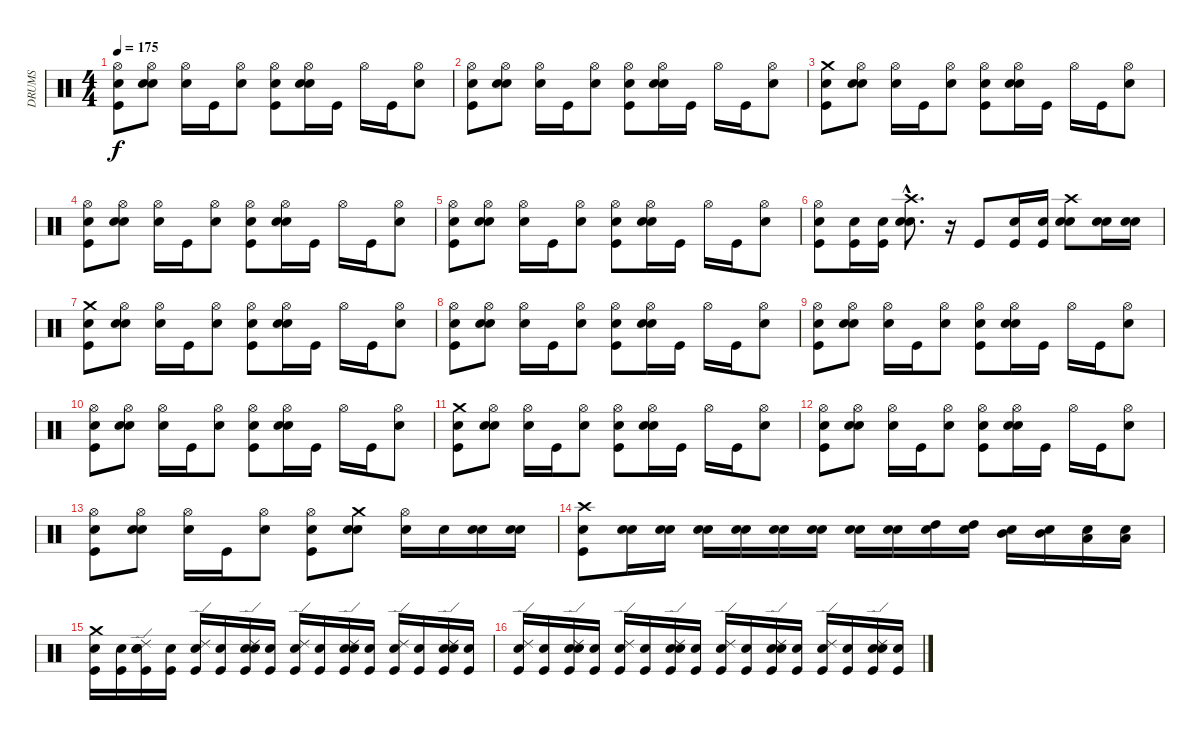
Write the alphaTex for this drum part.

\track ("DRUMS" "DRUMS") {instrument percussion}
\staff {score}
\articulation defaults
\ts (4 4)
\tempo 175
\clef neutral
\ks c
("Snare (hit)" "Kick (hit)" "Hi-Hat (open)").8{dy f} ("Snare (hit)" "Snare (hit) 2" "Hi-Hat (open)").8 ("Snare (hit)" "Hi-Hat (open)").16 "Kick (hit)".16 ("Snare (hit) 2" "Hi-Hat (open)").8 ("Snare (hit)" "Kick (hit)" "Hi-Hat (open)").8 ("Snare (hit)" "Snare (hit) 2" "Hi-Hat (open)").16 "Kick (hit)".16 "Hi-Hat (open)".16 "Kick (hit)".16 ("Snare (hit) 2" "Hi-Hat (open)").8 |
("Snare (hit)" "Kick (hit)" "Hi-Hat (open)").8 ("Snare (hit)" "Snare (hit) 2" "Hi-Hat (open)").8 ("Snare (hit)" "Hi-Hat (open)").16 "Kick (hit)".16 ("Snare (hit) 2" "Hi-Hat (open)").8 ("Snare (hit)" "Kick (hit)" "Hi-Hat (open)").8 ("Snare (hit)" "Snare (hit) 2" "Hi-Hat (open)").16 "Kick (hit)".16 "Hi-Hat (open)".16 "Kick (hit)".16 ("Snare (hit) 2" "Hi-Hat (open)").8 |
("Snare (hit)" "Crash medium (hit)" "Kick (hit)").8 ("Snare (hit)" "Hi-Hat (open)" "Snare (hit) 2").8 ("Snare (hit)" "Hi-Hat (open)").16 "Kick (hit)".16 ("Hi-Hat (open)" "Snare (hit) 2").8 ("Snare (hit)" "Hi-Hat (open)" "Kick (hit)").8 ("Snare (hit)" "Hi-Hat (open)" "Snare (hit) 2").16 "Kick (hit)".16 "Hi-Hat (open)".16 "Kick (hit)".16 ("Hi-Hat (open)" "Snare (hit) 2").8 |
("Snare (hit)" "Kick (hit)" "Hi-Hat (open)").8 ("Snare (hit)" "Snare (hit) 2" "Hi-Hat (open)").8 ("Snare (hit)" "Hi-Hat (open)").16 "Kick (hit)".16 ("Snare (hit) 2" "Hi-Hat (open)").8 ("Snare (hit)" "Kick (hit)" "Hi-Hat (open)").8 ("Snare (hit)" "Snare (hit) 2" "Hi-Hat (open)").16 "Kick (hit)".16 "Hi-Hat (open)".16 "Kick (hit)".16 ("Snare (hit) 2" "Hi-Hat (open)").8 |
("Snare (hit)" "Kick (hit)" "Hi-Hat (open)").8 ("Snare (hit)" "Snare (hit) 2" "Hi-Hat (open)").8 ("Snare (hit)" "Hi-Hat (open)").16 "Kick (hit)".16 ("Snare (hit) 2" "Hi-Hat (open)").8 ("Snare (hit)" "Kick (hit)" "Hi-Hat (open)").8 ("Snare (hit)" "Snare (hit) 2" "Hi-Hat (open)").16 "Kick (hit)".16 "Hi-Hat (open)".16 "Kick (hit)".16 ("Snare (hit) 2" "Hi-Hat (open)").8 |
("Snare (hit)" "Hi-Hat (open)" "Kick (hit)").8 ("Snare (hit)" "Kick (hit)").16 ("Snare (hit)" "Kick (hit)").16 ("Snare (hit)"{hac} "Crash high (hit)"{hac} "Snare (hit) 2"{hac}).8{d} r.16 "Kick (hit)".8 ("Snare (hit)" "Kick (hit)").16 ("Snare (hit)" "Kick (hit)").16 ("Snare (hit)" "Crash high (hit)" "Snare (hit) 2").8 ("Snare (hit)" "Snare (hit) 2").16 ("Snare (hit)" "Snare (hit) 2").16 |
("Snare (hit)" "Crash medium (hit)" "Kick (hit)").8 ("Snare (hit)" "Hi-Hat (open)" "Snare (hit) 2").8 ("Snare (hit)" "Hi-Hat (open)").16 "Kick (hit)".16 ("Hi-Hat (open)" "Snare (hit) 2").8 ("Snare (hit)" "Hi-Hat (open)" "Kick (hit)").8 ("Snare (hit)" "Hi-Hat (open)" "Snare (hit) 2").16 "Kick (hit)".16 "Hi-Hat (open)".16 "Kick (hit)".16 ("Hi-Hat (open)" "Snare (hit) 2").8 |
("Snare (hit)" "Kick (hit)" "Hi-Hat (open)").8 ("Snare (hit)" "Snare (hit) 2" "Hi-Hat (open)").8 ("Snare (hit)" "Hi-Hat (open)").16 "Kick (hit)".16 ("Snare (hit) 2" "Hi-Hat (open)").8 ("Snare (hit)" "Kick (hit)" "Hi-Hat (open)").8 ("Snare (hit)" "Snare (hit) 2" "Hi-Hat (open)").16 "Kick (hit)".16 "Hi-Hat (open)".16 "Kick (hit)".16 ("Snare (hit) 2" "Hi-Hat (open)").8 |
("Snare (hit)" "Kick (hit)" "Hi-Hat (open)").8 ("Snare (hit)" "Snare (hit) 2" "Hi-Hat (open)").8 ("Snare (hit)" "Hi-Hat (open)").16 "Kick (hit)".16 ("Snare (hit) 2" "Hi-Hat (open)").8 ("Snare (hit)" "Kick (hit)" "Hi-Hat (open)").8 ("Snare (hit)" "Snare (hit) 2" "Hi-Hat (open)").16 "Kick (hit)".16 "Hi-Hat (open)".16 "Kick (hit)".16 ("Snare (hit) 2" "Hi-Hat (open)").8 |
("Snare (hit)" "Kick (hit)" "Hi-Hat (open)").8 ("Snare (hit)" "Snare (hit) 2" "Hi-Hat (open)").8 ("Snare (hit)" "Hi-Hat (open)").16 "Kick (hit)".16 ("Snare (hit) 2" "Hi-Hat (open)").8 ("Snare (hit)" "Kick (hit)" "Hi-Hat (open)").8 ("Snare (hit)" "Snare (hit) 2" "Hi-Hat (open)").16 "Kick (hit)".16 "Hi-Hat (open)".16 "Kick (hit)".16 ("Snare (hit) 2" "Hi-Hat (open)").8 |
("Snare (hit)" "Kick (hit)" "Crash medium (hit)").8 ("Snare (hit)" "Snare (hit) 2" "Hi-Hat (open)").8 ("Snare (hit)" "Hi-Hat (open)").16 "Kick (hit)".16 ("Snare (hit) 2" "Hi-Hat (open)").8 ("Snare (hit)" "Kick (hit)" "Hi-Hat (open)").8 ("Snare (hit)" "Snare (hit) 2" "Hi-Hat (open)").16 "Kick (hit)".16 "Hi-Hat (open)".16 "Kick (hit)".16 ("Snare (hit) 2" "Hi-Hat (open)").8 |
("Snare (hit)" "Hi-Hat (open)" "Kick (hit)").8 ("Snare (hit)" "Hi-Hat (open)" "Snare (hit) 2").8 ("Snare (hit)" "Hi-Hat (open)").16 "Kick (hit)".16 ("Hi-Hat (open)" "Snare (hit) 2").8 ("Snare (hit)" "Hi-Hat (open)" "Kick (hit)").8 ("Snare (hit)" "Hi-Hat (open)" "Snare (hit) 2").16 "Kick (hit)".16 "Hi-Hat (open)".16 "Kick (hit)".16 ("Hi-Hat (open)" "Snare (hit) 2").8 |
("Snare (hit)" "Hi-Hat (open)" "Kick (hit)").8 ("Snare (hit)" "Hi-Hat (open)" "Snare (hit) 2").8 ("Snare (hit)" "Hi-Hat (open)").16 "Kick (hit)".16 ("Hi-Hat (open)" "Snare (hit) 2").8 ("Snare (hit)" "Hi-Hat (open)" "Kick (hit)").8 ("Snare (hit)" "Crash medium (hit)" "Snare (hit) 2").8 ("Snare (hit)" "Hi-Hat (open)").16 "Snare (hit) 2".16 ("Snare (hit)" "Snare (hit) 2").16 ("Snare (hit)" "Snare (hit) 2").16 |
("Snare (hit)" "Crash high (hit)" "Kick (hit)").8 ("Snare (hit)" "Snare (hit) 2").16 ("Snare (hit)" "Snare (hit) 2").16 ("Snare (hit)" "Snare (hit) 2").16 ("Snare (hit)" "Snare (hit) 2").16 ("Snare (hit)" "Snare (hit) 2").16 ("Snare (hit)" "Snare (hit) 2").16 ("Snare (hit)" "Snare (hit) 2").16 ("Snare (hit)" "Snare (hit) 2").16 ("Snare (hit)" "High Tom (hit)").16 ("Snare (hit)" "High Tom (hit)").16 ("Snare (hit)" "Mid Tom (hit)").16 ("Snare (hit)" "Mid Tom (hit)").16 ("Snare (hit)" "Low Tom (hit)").16 ("Snare (hit)" "Low Tom (hit)").16 |
("Snare (hit)" "Kick (hit)" "Crash medium (hit)").16 ("Snare (hit)" "Kick (hit)").16 ("Snare (hit)" "Kick (hit)" "Snare (hit) 2" "Ride (edge) 2").16 ("Snare (hit)" "Kick (hit)").16 ("Snare (hit)" "Kick (hit)" "Ride (edge) 2").16 ("Snare (hit)" "Kick (hit)").16 ("Snare (hit)" "Kick (hit)" "Snare (hit) 2" "Ride (edge) 2").16 ("Snare (hit)" "Kick (hit)").16 ("Snare (hit)" "Kick (hit)" "Ride (edge) 2").16 ("Snare (hit)" "Kick (hit)").16 ("Snare (hit)" "Kick (hit)" "Snare (hit) 2" "Ride (edge) 2").16 ("Snare (hit)" "Kick (hit)").16 ("Snare (hit)" "Kick (hit)" "Ride (edge) 2").16 ("Snare (hit)" "Kick (hit)").16 ("Snare (hit)" "Kick (hit)" "Snare (hit) 2" "Ride (edge) 2").16 ("Snare (hit)" "Kick (hit)").16 |
("Snare (hit)" "Kick (hit)" "Ride (edge) 2").16 ("Snare (hit)" "Kick (hit)").16 ("Snare (hit)" "Kick (hit)" "Snare (hit) 2" "Ride (edge) 2").16 ("Snare (hit)" "Kick (hit)").16 ("Snare (hit)" "Kick (hit)" "Ride (edge) 2").16 ("Snare (hit)" "Kick (hit)").16 ("Snare (hit)" "Kick (hit)" "Snare (hit) 2" "Ride (edge) 2").16 ("Snare (hit)" "Kick (hit)").16 ("Snare (hit)" "Kick (hit)" "Ride (edge) 2").16 ("Snare (hit)" "Kick (hit)").16 ("Snare (hit)" "Kick (hit)" "Snare (hit) 2" "Ride (edge) 2").16 ("Snare (hit)" "Kick (hit)").16 ("Snare (hit)" "Kick (hit)" "Ride (edge) 2").16 ("Snare (hit)" "Kick (hit)").16 ("Snare (hit)" "Kick (hit)" "Snare (hit) 2" "Ride (edge) 2").16 ("Snare (hit)" "Kick (hit)").16
